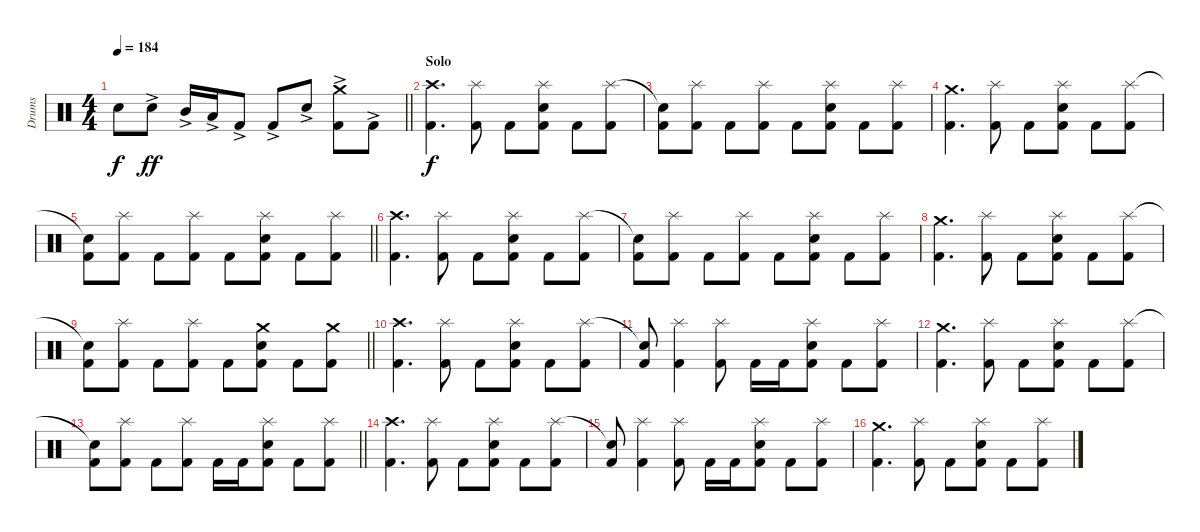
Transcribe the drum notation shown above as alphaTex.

\track ("Drums" "Drums") {instrument percussion}
\staff {score}
\articulation defaults
\ts (4 4)
\tempo 184
\clef neutral
\barLineRight lightlight
\ks c "Snare (hit)"{t}.8{dy f} "Snare (hit) 2"{ac}.8{dy ff} "Mid Tom (hit)"{ac}.16 "Low Tom (hit)"{ac}.16 "Kick (hit) 2"{ac}.8 "Kick (hit) 2"{ac}.8 "Snare (hit) 2"{ac}.8
("Kick (hit) 2"{ac} "Crash medium (hit)").8 "Kick (hit) 2"{ac}.8 |
\section ("" "Solo")
("Kick (hit) 2" "Crash high (hit)").4{d dy f} ("Kick (hit) 2" "Splash (hit)").8 "Kick (hit) 2".8 ("Kick (hit) 2" "Snare (hit) 2" "Splash (hit)").8 "Kick (hit) 2".8 ("Kick (hit) 2" "Splash (hit)").8 |
("Kick (hit) 2" "Snare (hit)"{t}).8 ("Kick (hit) 2" "Splash (hit)").8 "Kick (hit) 2".8 ("Kick (hit) 2" "Splash (hit)").8 "Kick (hit) 2".8 ("Kick (hit) 2" "Snare (hit) 2" "Splash (hit)").8 "Kick (hit) 2".8 ("Kick (hit) 2" "Splash (hit)").8 |
("Kick (hit) 2" "Crash medium (hit)").4{d} ("Kick (hit) 2" "Splash (hit)").8 "Kick (hit) 2".8 ("Kick (hit) 2" "Snare (hit) 2" "Splash (hit)").8 "Kick (hit) 2".8 ("Kick (hit) 2" "Splash (hit)").8 |
\barLineRight lightlight
("Kick (hit) 2" "Snare (hit)"{t}).8 ("Kick (hit) 2" "Splash (hit)").8 "Kick (hit) 2".8 ("Kick (hit) 2" "Splash (hit)").8 "Kick (hit) 2".8 ("Kick (hit) 2" "Snare (hit) 2" "Splash (hit)").8 "Kick (hit) 2".8 ("Kick (hit) 2" "Splash (hit)").8 |
\section ("" "")
("Kick (hit) 2" "Crash high (hit)").4{d} ("Kick (hit) 2" "Splash (hit)").8 "Kick (hit) 2".8 ("Kick (hit) 2" "Snare (hit) 2" "Splash (hit)").8 "Kick (hit) 2".8 ("Kick (hit) 2" "Splash (hit)").8 |
("Kick (hit) 2" "Snare (hit)"{t}).8 ("Kick (hit) 2" "Splash (hit)").8 "Kick (hit) 2".8 ("Kick (hit) 2" "Splash (hit)").8 "Kick (hit) 2".8 ("Kick (hit) 2" "Snare (hit) 2" "Splash (hit)").8 "Kick (hit) 2".8 ("Kick (hit) 2" "Splash (hit)").8 |
("Kick (hit) 2" "Crash medium (hit)").4{d} ("Kick (hit) 2" "Splash (hit)").8 "Kick (hit) 2".8 ("Kick (hit) 2" "Snare (hit) 2" "Splash (hit)").8 "Kick (hit) 2".8 ("Kick (hit) 2" "Splash (hit)").8 |
\barLineRight lightlight
("Kick (hit) 2" "Snare (hit)"{t}).8 ("Kick (hit) 2" "Splash (hit)").8 "Kick (hit) 2".8 ("Kick (hit) 2" "Splash (hit)").8 "Kick (hit) 2".8 ("Kick (hit) 2" "Snare (hit) 2" "Crash medium (hit)").8 "Kick (hit) 2".8 ("Kick (hit) 2" "Crash medium (hit)").8 |
\section ("" "")
("Kick (hit) 2" "Crash high (hit)").4{d} ("Kick (hit) 2" "Splash (hit)").8 "Kick (hit) 2".8 ("Kick (hit) 2" "Snare (hit) 2" "Splash (hit)").8 "Kick (hit) 2".8 ("Kick (hit) 2" "Splash (hit)").8 |
("Kick (hit) 2" "Snare (hit)"{t}).8 ("Kick (hit) 2" "Splash (hit)").4 ("Kick (hit) 2" "Splash (hit)").8 "Kick (hit) 2".16 "Kick (hit) 2".16 ("Kick (hit) 2" "Snare (hit) 2" "Splash (hit)").8 "Kick (hit) 2".8 ("Kick (hit) 2" "Splash (hit)").8 |
("Kick (hit) 2" "Crash medium (hit)").4{d} ("Kick (hit) 2" "Splash (hit)").8 "Kick (hit) 2".8 ("Kick (hit) 2" "Snare (hit) 2" "Splash (hit)").8 "Kick (hit) 2".8 ("Kick (hit) 2" "Splash (hit)").8 |
\barLineRight lightlight
("Kick (hit) 2" "Snare (hit)"{t}).8 ("Kick (hit) 2" "Splash (hit)").8 "Kick (hit) 2".8 ("Kick (hit) 2" "Splash (hit)").8 "Kick (hit) 2".16 "Kick (hit) 2".16 ("Kick (hit) 2" "Snare (hit) 2" "Splash (hit)").8 "Kick (hit) 2".8 ("Kick (hit) 2" "Splash (hit)").8 |
\section ("" "")
("Kick (hit) 2" "Crash high (hit)").4{d} ("Kick (hit) 2" "Splash (hit)").8 "Kick (hit) 2".8 ("Kick (hit) 2" "Snare (hit) 2" "Splash (hit)").8 "Kick (hit) 2".8 ("Kick (hit) 2" "Splash (hit)").8 |
("Kick (hit) 2" "Snare (hit)"{t}).8 ("Kick (hit) 2" "Splash (hit)").4 ("Kick (hit) 2" "Splash (hit)").8 "Kick (hit) 2".16 "Kick (hit) 2".16 ("Kick (hit) 2" "Snare (hit) 2" "Splash (hit)").8 "Kick (hit) 2".8 ("Kick (hit) 2" "Splash (hit)").8 |
("Kick (hit) 2" "Crash medium (hit)").4{d} ("Kick (hit) 2" "Splash (hit)").8 "Kick (hit) 2".8 ("Kick (hit) 2" "Snare (hit) 2" "Splash (hit)").8 "Kick (hit) 2".8 ("Kick (hit) 2" "Splash (hit)").8
